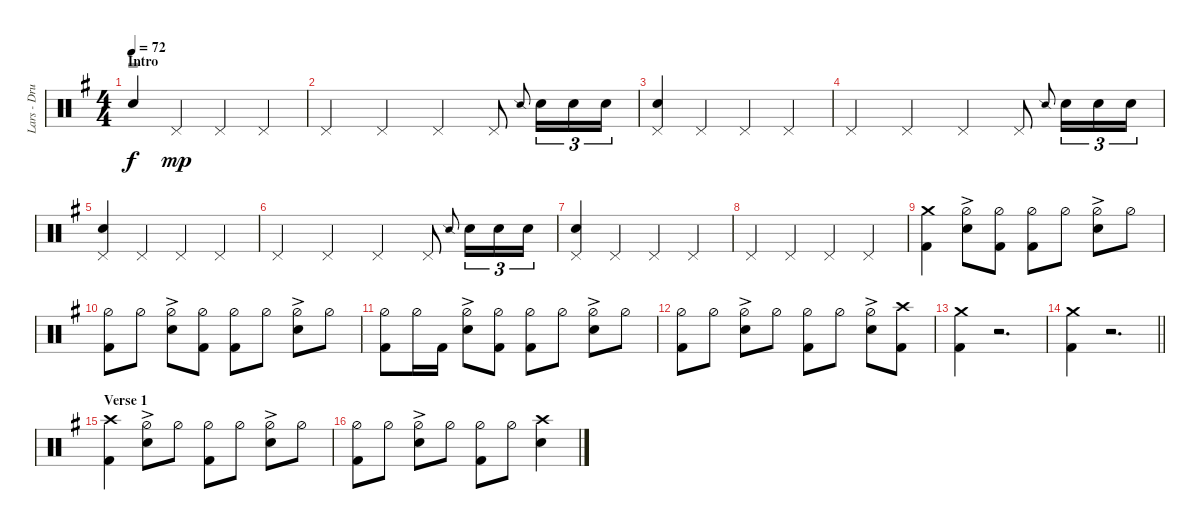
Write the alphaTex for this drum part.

\track ("Lars - Drums" "Lars - Dru") {instrument percussion}
\staff {score}
\articulation defaults
\voice
\ts (4 4)
\section ("" "Intro")
\tempo 72
\clef neutral
\ks eminor "Snare (hit) 2".4{dy f} "Pedal Hi-Hat (hit)".4{dy mp volume 3} "Pedal Hi-Hat (hit)".4 "Pedal Hi-Hat (hit)".4
|
"Pedal Hi-Hat (hit)".4 "Pedal Hi-Hat (hit)".4 "Pedal Hi-Hat (hit)".4 "Pedal Hi-Hat (hit)".8 "Snare (side stick) 2".8{gr onbeat} "Snare (hit) 2".16{tu (3 2)} "Snare (hit) 2".16{tu (3 2)} "Snare (hit) 2".16{tu (3 2)} |
("Pedal Hi-Hat (hit)" "Snare (hit) 2").4 "Pedal Hi-Hat (hit)".4 "Pedal Hi-Hat (hit)".4 "Pedal Hi-Hat (hit)".4 |
"Pedal Hi-Hat (hit)".4 "Pedal Hi-Hat (hit)".4 "Pedal Hi-Hat (hit)".4 "Pedal Hi-Hat (hit)".8 "Snare (side stick) 2".8{gr onbeat} "Snare (hit) 2".16{tu (3 2)} "Snare (hit) 2".16{tu (3 2)} "Snare (hit) 2".16{tu (3 2)} |
("Pedal Hi-Hat (hit)" "Snare (hit) 2").4 "Pedal Hi-Hat (hit)".4 "Pedal Hi-Hat (hit)".4 "Pedal Hi-Hat (hit)".4{balance 0} |
"Pedal Hi-Hat (hit)".4 "Pedal Hi-Hat (hit)".4{balance 8} "Pedal Hi-Hat (hit)".4 "Pedal Hi-Hat (hit)".8 "Snare (side stick) 2".8{gr onbeat} "Snare (hit) 2".16{tu (3 2)} "Snare (hit) 2".16{tu (3 2)} "Snare (hit) 2".16{tu (3 2)} |
("Pedal Hi-Hat (hit)" "Snare (hit) 2").4 "Pedal Hi-Hat (hit)".4 "Pedal Hi-Hat (hit)".4 "Pedal Hi-Hat (hit)".4{balance 0} |
"Pedal Hi-Hat (hit)".4 "Pedal Hi-Hat (hit)".4{balance 8} "Pedal Hi-Hat (hit)".4 "Pedal Hi-Hat (hit)".4 |
("Crash medium (hit)" "Kick (hit) 2").4{volume 6} ("Hi-Hat (half)"{ac} "Snare (hit) 2").8 ("Hi-Hat (half)" "Kick (hit) 2").8 ("Hi-Hat (half)" "Kick (hit) 2").8 "Hi-Hat (half)".8 ("Hi-Hat (half)"{ac} "Snare (hit) 2").8 "Hi-Hat (half)".8 |
("Hi-Hat (half)" "Kick (hit) 2").8 "Hi-Hat (half)".8 ("Hi-Hat (half)"{ac} "Snare (hit) 2").8 ("Hi-Hat (half)" "Kick (hit) 2").8 ("Hi-Hat (half)" "Kick (hit) 2").8 "Hi-Hat (half)".8 ("Hi-Hat (half)"{ac} "Snare (hit) 2").8 "Hi-Hat (half)".8 |
("Hi-Hat (half)" "Kick (hit) 2").8 "Hi-Hat (half)".16 "Kick (hit) 2".16 ("Hi-Hat (half)"{ac} "Snare (hit) 2").8 ("Hi-Hat (half)" "Kick (hit) 2").8 ("Hi-Hat (half)" "Kick (hit) 2").8 "Hi-Hat (half)".8 ("Hi-Hat (half)"{ac} "Snare (hit) 2").8 "Hi-Hat (half)".8 |
("Hi-Hat (half)" "Kick (hit) 2").8 "Hi-Hat (half)".8 ("Hi-Hat (half)"{ac} "Snare (hit) 2").8 "Hi-Hat (half)".8 ("Hi-Hat (half)" "Kick (hit) 2").8 "Hi-Hat (half)".8 ("Hi-Hat (half)"{ac} "Snare (hit) 2").8 ("Kick (hit) 2" "Crash high (hit)").8 |
("Crash medium (hit)" "Kick (hit) 2").4 r.2{d} |
\barLineRight lightlight
("Crash medium (hit)" "Kick (hit) 2").4 r.2{d} |
\section ("" "Verse 1")
("Crash high (hit)" "Kick (hit) 2").4{volume 8} ("Hi-Hat (half)"{ac} "Snare (hit) 2").8 "Hi-Hat (half)".8 ("Hi-Hat (half)" "Kick (hit) 2").8 "Hi-Hat (half)".8 ("Hi-Hat (half)"{ac} "Snare (hit) 2").8 "Hi-Hat (half)".8 |
("Hi-Hat (half)" "Kick (hit) 2").8 "Hi-Hat (half)".8 ("Hi-Hat (half)"{ac} "Snare (hit) 2").8 "Hi-Hat (half)".8 ("Hi-Hat (half)" "Kick (hit) 2").8 "Hi-Hat (half)".8 ("Snare (hit) 2" "Crash high (hit)").4
\voice
\clef neutral
\ottava regular
\simile none
\ks eminor
r.1{dy f} |
|
|
|
|
|
|
|
|
|
|
|
|
\barLineRight lightlight
|
|
